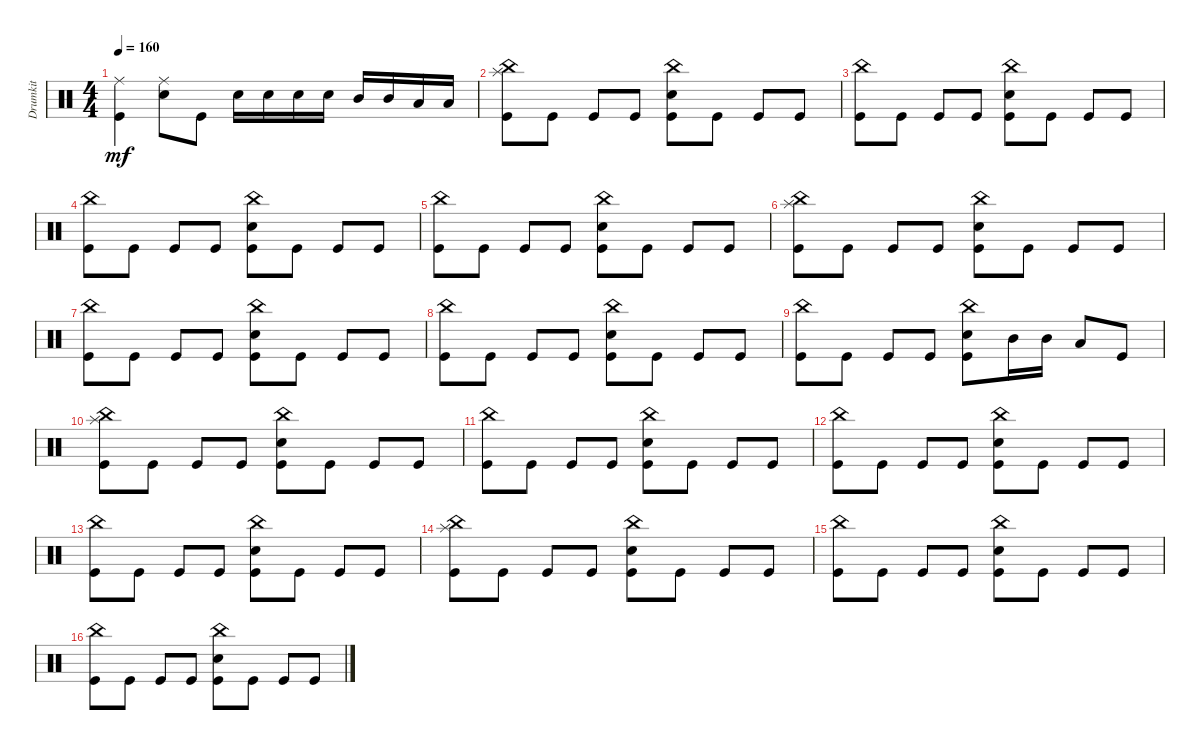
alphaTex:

\track ("Drumkit" "Drumkit") {instrument percussion}
\staff {score}
\articulation defaults
\ts (4 4)
\tempo 160
\clef neutral
\ks c
("Kick (hit)" "Ride (middle)").4{dy mf} ("Snare (hit) 2" "Ride (middle)").8 "Kick (hit)".8 "Snare (hit) 2".16 "Snare (hit) 2".16 "Snare (hit) 2".16 "Snare (hit) 2".16 "Mid Tom (hit)".16 "Mid Tom (hit)".16 "Low Tom (hit)".16 "Low Tom (hit)".16 |
("Kick (hit)" "China (hit)" "Splash (hit)").8 "Kick (hit)".8 "Kick (hit)".8 "Kick (hit)".8 ("Kick (hit)" "China (hit)" "Snare (hit) 2").8 "Kick (hit)".8 "Kick (hit)".8 "Kick (hit)".8 |
("Kick (hit)" "China (hit)").8 "Kick (hit)".8 "Kick (hit)".8 "Kick (hit)".8 ("Kick (hit)" "China (hit)" "Snare (hit) 2").8 "Kick (hit)".8 "Kick (hit)".8 "Kick (hit)".8 |
("Kick (hit)" "China (hit)").8 "Kick (hit)".8 "Kick (hit)".8 "Kick (hit)".8 ("Kick (hit)" "China (hit)" "Snare (hit) 2").8 "Kick (hit)".8 "Kick (hit)".8 "Kick (hit)".8 |
("Kick (hit)" "China (hit)").8 "Kick (hit)".8 "Kick (hit)".8 "Kick (hit)".8 ("Kick (hit)" "China (hit)" "Snare (hit) 2").8 "Kick (hit)".8 "Kick (hit)".8 "Kick (hit)".8 |
("Kick (hit)" "China (hit)" "Splash (hit)").8 "Kick (hit)".8 "Kick (hit)".8 "Kick (hit)".8 ("Kick (hit)" "China (hit)" "Snare (hit) 2").8 "Kick (hit)".8 "Kick (hit)".8 "Kick (hit)".8 |
("Kick (hit)" "China (hit)").8 "Kick (hit)".8 "Kick (hit)".8 "Kick (hit)".8 ("Kick (hit)" "China (hit)" "Snare (hit) 2").8 "Kick (hit)".8 "Kick (hit)".8 "Kick (hit)".8 |
("Kick (hit)" "China (hit)").8 "Kick (hit)".8 "Kick (hit)".8 "Kick (hit)".8 ("Kick (hit)" "China (hit)" "Snare (hit) 2").8 "Kick (hit)".8 "Kick (hit)".8 "Kick (hit)".8 |
("Kick (hit)" "China (hit)").8 "Kick (hit)".8 "Kick (hit)".8 "Kick (hit)".8 ("Kick (hit)" "China (hit)" "Snare (hit) 2").8 "Mid Tom (hit)".16 "Mid Tom (hit)".16 "Low Tom (hit)".8 "Kick (hit)".8 |
("Kick (hit)" "China (hit)" "Splash (hit)").8 "Kick (hit)".8 "Kick (hit)".8 "Kick (hit)".8 ("Kick (hit)" "China (hit)" "Snare (hit) 2").8 "Kick (hit)".8 "Kick (hit)".8 "Kick (hit)".8 |
("Kick (hit)" "China (hit)").8 "Kick (hit)".8 "Kick (hit)".8 "Kick (hit)".8 ("Kick (hit)" "China (hit)" "Snare (hit) 2").8 "Kick (hit)".8 "Kick (hit)".8 "Kick (hit)".8 |
("Kick (hit)" "China (hit)").8 "Kick (hit)".8 "Kick (hit)".8 "Kick (hit)".8 ("Kick (hit)" "China (hit)" "Snare (hit) 2").8 "Kick (hit)".8 "Kick (hit)".8 "Kick (hit)".8 |
("Kick (hit)" "China (hit)").8 "Kick (hit)".8 "Kick (hit)".8 "Kick (hit)".8 ("Kick (hit)" "China (hit)" "Snare (hit) 2").8 "Kick (hit)".8 "Kick (hit)".8 "Kick (hit)".8 |
("Kick (hit)" "China (hit)" "Splash (hit)").8 "Kick (hit)".8 "Kick (hit)".8 "Kick (hit)".8 ("Kick (hit)" "China (hit)" "Snare (hit) 2").8 "Kick (hit)".8 "Kick (hit)".8 "Kick (hit)".8 |
("Kick (hit)" "China (hit)").8 "Kick (hit)".8 "Kick (hit)".8 "Kick (hit)".8 ("Kick (hit)" "China (hit)" "Snare (hit) 2").8 "Kick (hit)".8 "Kick (hit)".8 "Kick (hit)".8 |
("Kick (hit)" "China (hit)").8 "Kick (hit)".8 "Kick (hit)".8 "Kick (hit)".8 ("Kick (hit)" "China (hit)" "Snare (hit) 2").8 "Kick (hit)".8 "Kick (hit)".8 "Kick (hit)".8
